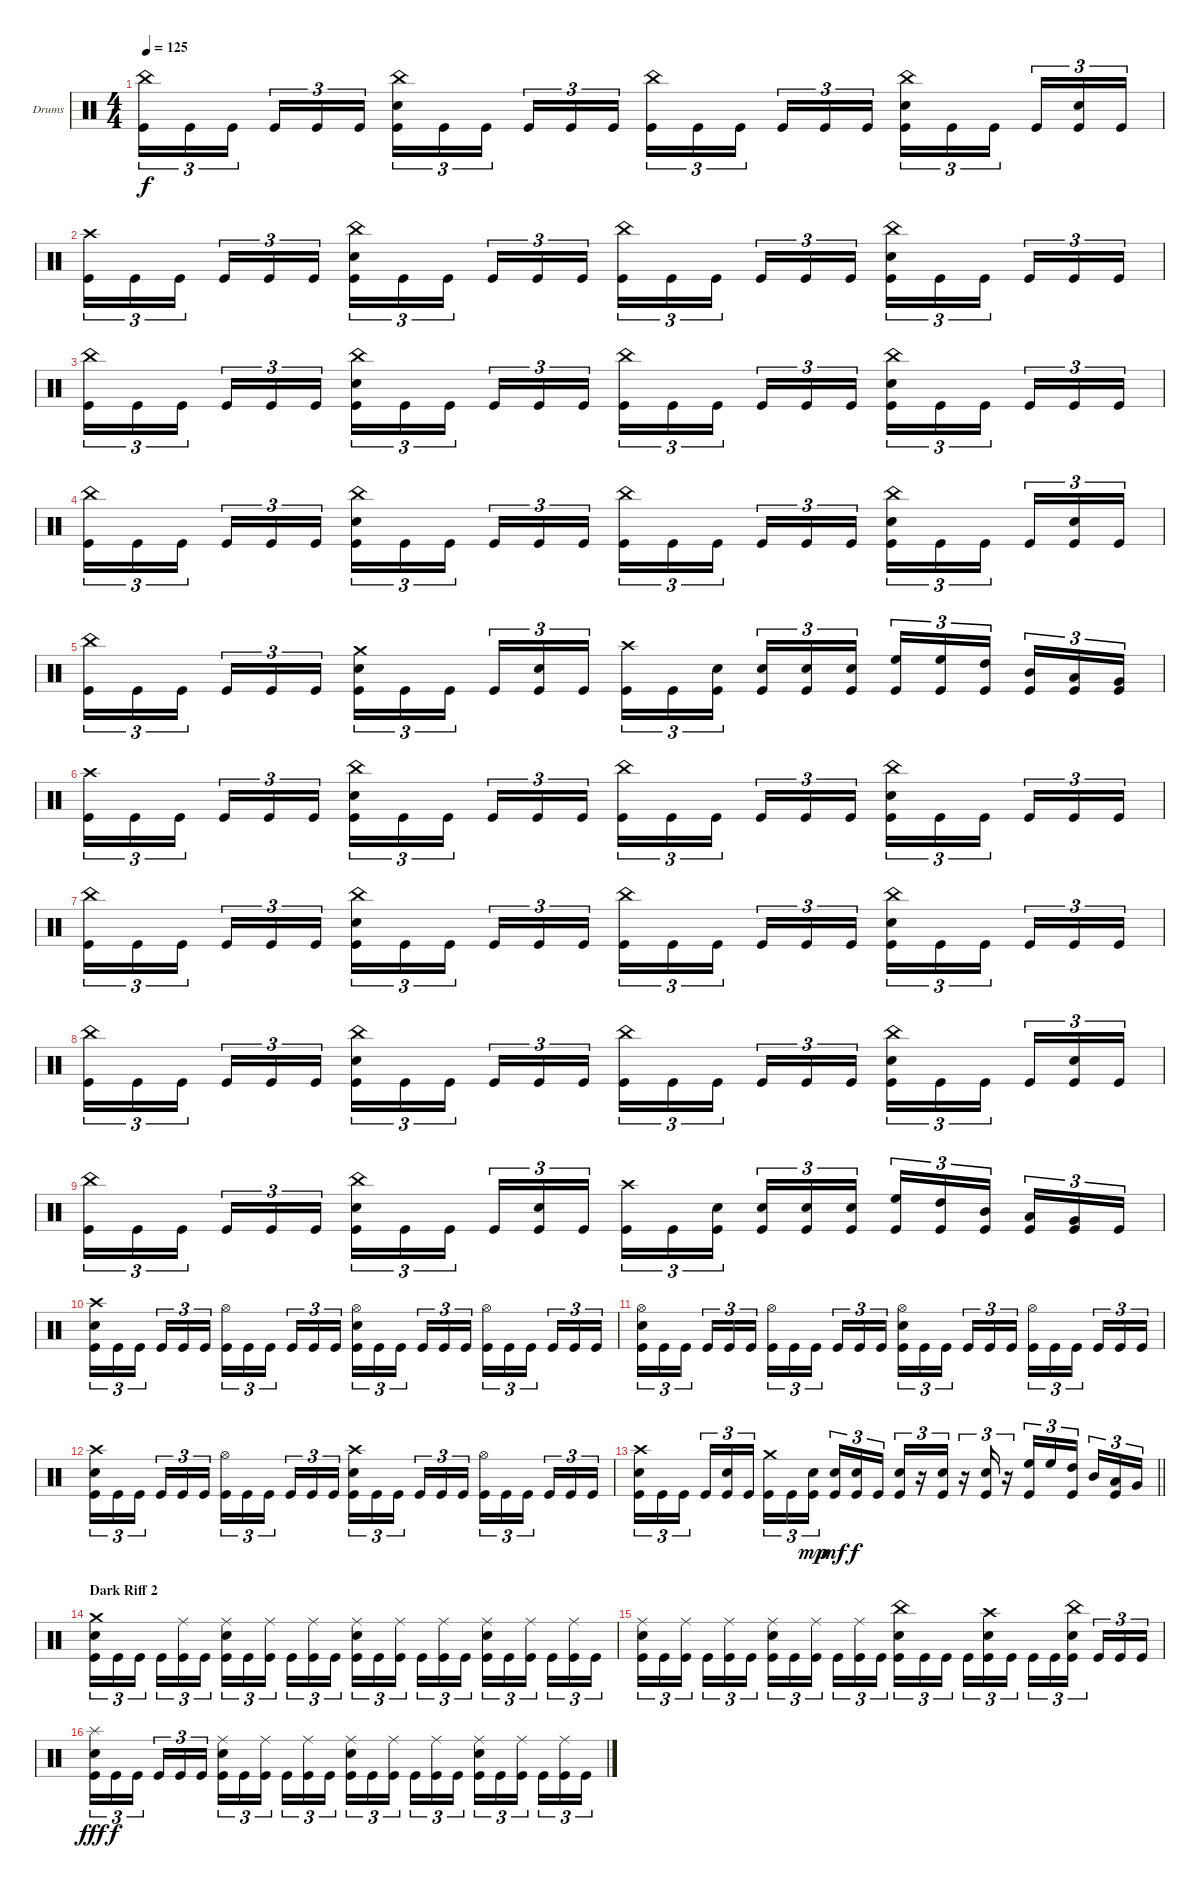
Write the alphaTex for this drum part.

\bracketExtendMode nobrackets
\firstSystemTrackNameOrientation horizontal
\otherSystemsTrackNameOrientation horizontal
\track ("Drumkit" "Drums") {instrument percussion}
\staff {score}
\articulation defaults
\ts (4 4)
\tempo 125
\clef neutral
\ks c
("China (hit)" "Kick (hit)").16{tu (3 2) dy f} "Kick (hit)".16{tu (3 2)} "Kick (hit)".16{tu (3 2)} "Kick (hit)".16{tu (3 2)} "Kick (hit)".16{tu (3 2)} "Kick (hit)".16{tu (3 2)} ("China (hit)" "Snare (hit) 2" "Kick (hit)").16{tu (3 2)} "Kick (hit)".16{tu (3 2)} "Kick (hit)".16{tu (3 2)} "Kick (hit)".16{tu (3 2)} "Kick (hit)".16{tu (3 2)} "Kick (hit)".16{tu (3 2)} ("China (hit)" "Kick (hit)").16{tu (3 2)} "Kick (hit)".16{tu (3 2)} "Kick (hit)".16{tu (3 2)} "Kick (hit)".16{tu (3 2)} "Kick (hit)".16{tu (3 2)} "Kick (hit)".16{tu (3 2)} ("China (hit)" "Snare (hit) 2" "Kick (hit)").16{tu (3 2)} "Kick (hit)".16{tu (3 2)} "Kick (hit)".16{tu (3 2)} "Kick (hit)".16{tu (3 2)} ("Snare (hit) 2" "Kick (hit)").16{tu (3 2)} "Kick (hit)".16{tu (3 2)} |
("Crash high (hit)" "Kick (hit)").16{tu (3 2)} "Kick (hit)".16{tu (3 2)} "Kick (hit)".16{tu (3 2)} "Kick (hit)".16{tu (3 2)} "Kick (hit)".16{tu (3 2)} "Kick (hit)".16{tu (3 2)} ("China (hit)" "Snare (hit) 2" "Kick (hit)").16{tu (3 2)} "Kick (hit)".16{tu (3 2)} "Kick (hit)".16{tu (3 2)} "Kick (hit)".16{tu (3 2)} "Kick (hit)".16{tu (3 2)} "Kick (hit)".16{tu (3 2)} ("China (hit)" "Kick (hit)").16{tu (3 2)} "Kick (hit)".16{tu (3 2)} "Kick (hit)".16{tu (3 2)} "Kick (hit)".16{tu (3 2)} "Kick (hit)".16{tu (3 2)} "Kick (hit)".16{tu (3 2)} ("China (hit)" "Snare (hit) 2" "Kick (hit)").16{tu (3 2)} "Kick (hit)".16{tu (3 2)} "Kick (hit)".16{tu (3 2)} "Kick (hit)".16{tu (3 2)} "Kick (hit)".16{tu (3 2)} "Kick (hit)".16{tu (3 2)} |
("China (hit)" "Kick (hit)").16{tu (3 2)} "Kick (hit)".16{tu (3 2)} "Kick (hit)".16{tu (3 2)} "Kick (hit)".16{tu (3 2)} "Kick (hit)".16{tu (3 2)} "Kick (hit)".16{tu (3 2)} ("China (hit)" "Snare (hit) 2" "Kick (hit)").16{tu (3 2)} "Kick (hit)".16{tu (3 2)} "Kick (hit)".16{tu (3 2)} "Kick (hit)".16{tu (3 2)} "Kick (hit)".16{tu (3 2)} "Kick (hit)".16{tu (3 2)} ("China (hit)" "Kick (hit)").16{tu (3 2)} "Kick (hit)".16{tu (3 2)} "Kick (hit)".16{tu (3 2)} "Kick (hit)".16{tu (3 2)} "Kick (hit)".16{tu (3 2)} "Kick (hit)".16{tu (3 2)} ("China (hit)" "Snare (hit) 2" "Kick (hit)").16{tu (3 2)} "Kick (hit)".16{tu (3 2)} "Kick (hit)".16{tu (3 2)} "Kick (hit)".16{tu (3 2)} "Kick (hit)".16{tu (3 2)} "Kick (hit)".16{tu (3 2)} |
("China (hit)" "Kick (hit)").16{tu (3 2)} "Kick (hit)".16{tu (3 2)} "Kick (hit)".16{tu (3 2)} "Kick (hit)".16{tu (3 2)} "Kick (hit)".16{tu (3 2)} "Kick (hit)".16{tu (3 2)} ("China (hit)" "Snare (hit) 2" "Kick (hit)").16{tu (3 2)} "Kick (hit)".16{tu (3 2)} "Kick (hit)".16{tu (3 2)} "Kick (hit)".16{tu (3 2)} "Kick (hit)".16{tu (3 2)} "Kick (hit)".16{tu (3 2)} ("China (hit)" "Kick (hit)").16{tu (3 2)} "Kick (hit)".16{tu (3 2)} "Kick (hit)".16{tu (3 2)} "Kick (hit)".16{tu (3 2)} "Kick (hit)".16{tu (3 2)} "Kick (hit)".16{tu (3 2)} ("China (hit)" "Snare (hit) 2" "Kick (hit)").16{tu (3 2)} "Kick (hit)".16{tu (3 2)} "Kick (hit)".16{tu (3 2)} "Kick (hit)".16{tu (3 2)} ("Snare (hit) 2" "Kick (hit)").16{tu (3 2)} "Kick (hit)".16{tu (3 2)} |
("China (hit)" "Kick (hit)").16{tu (3 2)} "Kick (hit)".16{tu (3 2)} "Kick (hit)".16{tu (3 2)} "Kick (hit)".16{tu (3 2)} "Kick (hit)".16{tu (3 2)} "Kick (hit)".16{tu (3 2)} ("Crash medium (hit)" "Snare (hit) 2" "Kick (hit)").16{tu (3 2)} "Kick (hit)".16{tu (3 2)} "Kick (hit)".16{tu (3 2)} "Kick (hit)".16{tu (3 2)} ("Snare (hit) 2" "Kick (hit)").16{tu (3 2)} "Kick (hit)".16{tu (3 2)} ("Crash high (hit)" "Kick (hit)").16{tu (3 2)} "Kick (hit)".16{tu (3 2)} ("Snare (hit) 2" "Kick (hit)").16{tu (3 2)} ("Snare (hit) 2" "Kick (hit)").16{tu (3 2)} ("Snare (hit) 2" "Kick (hit)").16{tu (3 2)} ("Snare (hit) 2" "Kick (hit)").16{tu (3 2)} ("High Floor Tom (hit)" "Kick (hit)").16{tu (3 2)} ("High Floor Tom (hit)" "Kick (hit)").16{tu (3 2)} ("High Tom (hit)" "Kick (hit)").16{tu (3 2)} ("Mid Tom (hit)" "Kick (hit)").16{tu (3 2)} ("Low Tom (hit)" "Kick (hit)").16{tu (3 2)} ("Very Low Tom (hit)" "Kick (hit)").16{tu (3 2)} |
("Crash high (hit)" "Kick (hit)").16{tu (3 2)} "Kick (hit)".16{tu (3 2)} "Kick (hit)".16{tu (3 2)} "Kick (hit)".16{tu (3 2)} "Kick (hit)".16{tu (3 2)} "Kick (hit)".16{tu (3 2)} ("China (hit)" "Snare (hit) 2" "Kick (hit)").16{tu (3 2)} "Kick (hit)".16{tu (3 2)} "Kick (hit)".16{tu (3 2)} "Kick (hit)".16{tu (3 2)} "Kick (hit)".16{tu (3 2)} "Kick (hit)".16{tu (3 2)} ("China (hit)" "Kick (hit)").16{tu (3 2)} "Kick (hit)".16{tu (3 2)} "Kick (hit)".16{tu (3 2)} "Kick (hit)".16{tu (3 2)} "Kick (hit)".16{tu (3 2)} "Kick (hit)".16{tu (3 2)} ("China (hit)" "Snare (hit) 2" "Kick (hit)").16{tu (3 2)} "Kick (hit)".16{tu (3 2)} "Kick (hit)".16{tu (3 2)} "Kick (hit)".16{tu (3 2)} "Kick (hit)".16{tu (3 2)} "Kick (hit)".16{tu (3 2)} |
("China (hit)" "Kick (hit)").16{tu (3 2)} "Kick (hit)".16{tu (3 2)} "Kick (hit)".16{tu (3 2)} "Kick (hit)".16{tu (3 2)} "Kick (hit)".16{tu (3 2)} "Kick (hit)".16{tu (3 2)} ("China (hit)" "Snare (hit) 2" "Kick (hit)").16{tu (3 2)} "Kick (hit)".16{tu (3 2)} "Kick (hit)".16{tu (3 2)} "Kick (hit)".16{tu (3 2)} "Kick (hit)".16{tu (3 2)} "Kick (hit)".16{tu (3 2)} ("China (hit)" "Kick (hit)").16{tu (3 2)} "Kick (hit)".16{tu (3 2)} "Kick (hit)".16{tu (3 2)} "Kick (hit)".16{tu (3 2)} "Kick (hit)".16{tu (3 2)} "Kick (hit)".16{tu (3 2)} ("China (hit)" "Snare (hit) 2" "Kick (hit)").16{tu (3 2)} "Kick (hit)".16{tu (3 2)} "Kick (hit)".16{tu (3 2)} "Kick (hit)".16{tu (3 2)} "Kick (hit)".16{tu (3 2)} "Kick (hit)".16{tu (3 2)} |
("China (hit)" "Kick (hit)").16{tu (3 2)} "Kick (hit)".16{tu (3 2)} "Kick (hit)".16{tu (3 2)} "Kick (hit)".16{tu (3 2)} "Kick (hit)".16{tu (3 2)} "Kick (hit)".16{tu (3 2)} ("China (hit)" "Snare (hit) 2" "Kick (hit)").16{tu (3 2)} "Kick (hit)".16{tu (3 2)} "Kick (hit)".16{tu (3 2)} "Kick (hit)".16{tu (3 2)} "Kick (hit)".16{tu (3 2)} "Kick (hit)".16{tu (3 2)} ("China (hit)" "Kick (hit)").16{tu (3 2)} "Kick (hit)".16{tu (3 2)} "Kick (hit)".16{tu (3 2)} "Kick (hit)".16{tu (3 2)} "Kick (hit)".16{tu (3 2)} "Kick (hit)".16{tu (3 2)} ("China (hit)" "Snare (hit) 2" "Kick (hit)").16{tu (3 2)} "Kick (hit)".16{tu (3 2)} "Kick (hit)".16{tu (3 2)} "Kick (hit)".16{tu (3 2)} ("Snare (hit) 2" "Kick (hit)").16{tu (3 2)} "Kick (hit)".16{tu (3 2)} |
("China (hit)" "Kick (hit)").16{tu (3 2)} "Kick (hit)".16{tu (3 2)} "Kick (hit)".16{tu (3 2)} "Kick (hit)".16{tu (3 2)} "Kick (hit)".16{tu (3 2)} "Kick (hit)".16{tu (3 2)} ("China (hit)" "Snare (hit) 2" "Kick (hit)").16{tu (3 2)} "Kick (hit)".16{tu (3 2)} "Kick (hit)".16{tu (3 2)} "Kick (hit)".16{tu (3 2)} ("Snare (hit) 2" "Kick (hit)").16{tu (3 2)} "Kick (hit)".16{tu (3 2)} ("Crash high (hit)" "Kick (hit)").16{tu (3 2)} "Kick (hit)".16{tu (3 2)} ("Snare (hit) 2" "Kick (hit)").16{tu (3 2)} ("Snare (hit) 2" "Kick (hit)").16{tu (3 2)} ("Snare (hit) 2" "Kick (hit)").16{tu (3 2)} ("Snare (hit) 2" "Kick (hit)").16{tu (3 2)} ("High Floor Tom (hit)" "Kick (hit)").16{tu (3 2)} ("High Tom (hit)" "Kick (hit)").16{tu (3 2)} ("Mid Tom (hit)" "Kick (hit)").16{tu (3 2)} ("Low Tom (hit)" "Kick (hit)").16{tu (3 2)} ("Very Low Tom (hit)" "Kick (hit)").16{tu (3 2)} "Kick (hit)".16{tu (3 2)} |
("Crash high (hit)" "Snare (hit) 2" "Kick (hit)").16{tu (3 2)} "Kick (hit)".16{tu (3 2)} "Kick (hit)".16{tu (3 2)} "Kick (hit)".16{tu (3 2)} "Kick (hit)".16{tu (3 2)} "Kick (hit)".16{tu (3 2)} ("Hi-Hat (open)" "Kick (hit)").16{tu (3 2)} "Kick (hit)".16{tu (3 2)} "Kick (hit)".16{tu (3 2)} "Kick (hit)".16{tu (3 2)} "Kick (hit)".16{tu (3 2)} "Kick (hit)".16{tu (3 2)} ("Hi-Hat (open)" "Snare (hit) 2" "Kick (hit)").16{tu (3 2)} "Kick (hit)".16{tu (3 2)} "Kick (hit)".16{tu (3 2)} "Kick (hit)".16{tu (3 2)} "Kick (hit)".16{tu (3 2)} "Kick (hit)".16{tu (3 2)} ("Hi-Hat (open)" "Kick (hit)").16{tu (3 2)} "Kick (hit)".16{tu (3 2)} "Kick (hit)".16{tu (3 2)} "Kick (hit)".16{tu (3 2)} "Kick (hit)".16{tu (3 2)} "Kick (hit)".16{tu (3 2)} |
("Hi-Hat (open)" "Snare (hit) 2" "Kick (hit)").16{tu (3 2)} "Kick (hit)".16{tu (3 2)} "Kick (hit)".16{tu (3 2)} "Kick (hit)".16{tu (3 2)} "Kick (hit)".16{tu (3 2)} "Kick (hit)".16{tu (3 2)} ("Hi-Hat (open)" "Kick (hit)").16{tu (3 2)} "Kick (hit)".16{tu (3 2)} "Kick (hit)".16{tu (3 2)} "Kick (hit)".16{tu (3 2)} "Kick (hit)".16{tu (3 2)} "Kick (hit)".16{tu (3 2)} ("Hi-Hat (open)" "Snare (hit) 2" "Kick (hit)").16{tu (3 2)} "Kick (hit)".16{tu (3 2)} "Kick (hit)".16{tu (3 2)} "Kick (hit)".16{tu (3 2)} "Kick (hit)".16{tu (3 2)} "Kick (hit)".16{tu (3 2)} ("Hi-Hat (open)" "Kick (hit)").16{tu (3 2)} "Kick (hit)".16{tu (3 2)} "Kick (hit)".16{tu (3 2)} "Kick (hit)".16{tu (3 2)} "Kick (hit)".16{tu (3 2)} "Kick (hit)".16{tu (3 2)} |
("Crash high (hit)" "Snare (hit) 2" "Kick (hit)").16{tu (3 2)} "Kick (hit)".16{tu (3 2)} "Kick (hit)".16{tu (3 2)} "Kick (hit)".16{tu (3 2)} "Kick (hit)".16{tu (3 2)} "Kick (hit)".16{tu (3 2)} ("Hi-Hat (open)" "Kick (hit)").16{tu (3 2)} "Kick (hit)".16{tu (3 2)} "Kick (hit)".16{tu (3 2)} "Kick (hit)".16{tu (3 2)} "Kick (hit)".16{tu (3 2)} "Kick (hit)".16{tu (3 2)} ("Crash high (hit)" "Snare (hit) 2" "Kick (hit)").16{tu (3 2)} "Kick (hit)".16{tu (3 2)} "Kick (hit)".16{tu (3 2)} "Kick (hit)".16{tu (3 2)} "Kick (hit)".16{tu (3 2)} "Kick (hit)".16{tu (3 2)} ("Hi-Hat (open)" "Kick (hit)").16{tu (3 2)} "Kick (hit)".16{tu (3 2)} "Kick (hit)".16{tu (3 2)} "Kick (hit)".16{tu (3 2)} "Kick (hit)".16{tu (3 2)} "Kick (hit)".16{tu (3 2)} |
\barLineRight lightlight
("Crash high (hit)" "Snare (hit) 2" "Kick (hit)").16{tu (3 2)} "Kick (hit)".16{tu (3 2)} "Kick (hit)".16{tu (3 2)} "Kick (hit)".16{tu (3 2)} ("Snare (hit) 2" "Kick (hit)").16{tu (3 2)} "Kick (hit)".16{tu (3 2)} ("Crash medium (hit)" "Kick (hit)").16{tu (3 2)} "Kick (hit)".16{tu (3 2)} ("Snare (hit) 2" "Kick (hit)").16{tu (3 2) dy mp} ("Snare (hit) 2" "Kick (hit)").16{tu (3 2) dy mf} ("Snare (hit) 2" "Kick (hit)").16{tu (3 2) dy f} "Kick (hit)".16{tu (3 2)} ("Snare (hit) 2" "Kick (hit)").16{tu (3 2)} r.16{tu (3 2)} ("Snare (hit) 2" "Kick (hit)").16{tu (3 2)} r.16{tu (3 2)} ("Snare (hit) 2" "Kick (hit)").16{tu (3 2)} r.16{tu (3 2)} ("High Floor Tom (hit)" "Kick (hit)").16{tu (3 2)} "High Floor Tom (hit)".16{tu (3 2)} ("High Tom (hit)" "Kick (hit)").16{tu (3 2)} "Mid Tom (hit)".16{tu (3 2)} ("Low Tom (hit)" "Kick (hit)").16{tu (3 2)} "Very Low Tom (hit)".16{tu (3 2)} |
\section ("" "Dark Riff 2")
("Crash medium (hit)" "Snare (hit) 2" "Kick (hit)").16{tu (3 2)} "Kick (hit)".16{tu (3 2)} "Kick (hit)".16{tu (3 2)} "Kick (hit)".16{tu (3 2)} ("Ride (middle)" "Kick (hit)").16{tu (3 2)} "Kick (hit)".16{tu (3 2)} ("Ride (middle)" "Snare (hit) 2" "Kick (hit)").16{tu (3 2)} "Kick (hit)".16{tu (3 2)} ("Ride (middle)" "Kick (hit)").16{tu (3 2)} "Kick (hit)".16{tu (3 2)} ("Ride (middle)" "Kick (hit)").16{tu (3 2)} "Kick (hit)".16{tu (3 2)} ("Ride (middle)" "Snare (hit) 2" "Kick (hit)").16{tu (3 2)} "Kick (hit)".16{tu (3 2)} ("Ride (middle)" "Kick (hit)").16{tu (3 2)} "Kick (hit)".16{tu (3 2)} ("Ride (middle)" "Kick (hit)").16{tu (3 2)} "Kick (hit)".16{tu (3 2)} ("Ride (middle)" "Snare (hit) 2" "Kick (hit)").16{tu (3 2)} "Kick (hit)".16{tu (3 2)} ("Ride (middle)" "Kick (hit)").16{tu (3 2)} "Kick (hit)".16{tu (3 2)} ("Ride (middle)" "Kick (hit)").16{tu (3 2)} "Kick (hit)".16{tu (3 2)} |
("Ride (middle)" "Snare (hit) 2" "Kick (hit)").16{tu (3 2)} "Kick (hit)".16{tu (3 2)} ("Ride (middle)" "Kick (hit)").16{tu (3 2)} "Kick (hit)".16{tu (3 2)} ("Ride (middle)" "Kick (hit)").16{tu (3 2)} "Kick (hit)".16{tu (3 2)} ("Ride (middle)" "Snare (hit) 2" "Kick (hit)").16{tu (3 2)} "Kick (hit)".16{tu (3 2)} ("Ride (middle)" "Kick (hit)").16{tu (3 2)} "Kick (hit)".16{tu (3 2)} ("Ride (middle)" "Kick (hit)").16{tu (3 2)} "Kick (hit)".16{tu (3 2)} ("China (hit)" "Snare (hit) 2" "Kick (hit)").16{tu (3 2)} "Kick (hit)".16{tu (3 2)} "Kick (hit)".16{tu (3 2)} "Kick (hit)".16{tu (3 2)} ("Crash high (hit)" "Snare (hit) 2" "Kick (hit)").16{tu (3 2)} "Kick (hit)".16{tu (3 2)} "Kick (hit)".16{tu (3 2)} "Kick (hit)".16{tu (3 2)} ("China (hit)" "Snare (hit) 2" "Kick (hit)").16{tu (3 2)} "Kick (hit)".16{tu (3 2)} "Kick (hit)".16{tu (3 2)} "Kick (hit)".16{tu (3 2)} |
("Splash (hit)" "Snare (hit) 2" "Kick (hit)").16{tu (3 2) dy fff} "Kick (hit)".16{tu (3 2) dy f} "Kick (hit)".16{tu (3 2)} "Kick (hit)".16{tu (3 2)} "Kick (hit)".16{tu (3 2)} "Kick (hit)".16{tu (3 2)} ("Ride (middle)" "Snare (hit) 2" "Kick (hit)").16{tu (3 2)} "Kick (hit)".16{tu (3 2)} ("Ride (middle)" "Kick (hit)").16{tu (3 2)} "Kick (hit)".16{tu (3 2)} ("Ride (middle)" "Kick (hit)").16{tu (3 2)} "Kick (hit)".16{tu (3 2)} ("Ride (middle)" "Snare (hit) 2" "Kick (hit)").16{tu (3 2)} "Kick (hit)".16{tu (3 2)} ("Ride (middle)" "Kick (hit)").16{tu (3 2)} "Kick (hit)".16{tu (3 2)} ("Ride (middle)" "Kick (hit)").16{tu (3 2)} "Kick (hit)".16{tu (3 2)} ("Ride (middle)" "Snare (hit) 2" "Kick (hit)").16{tu (3 2)} "Kick (hit)".16{tu (3 2)} ("Ride (middle)" "Kick (hit)").16{tu (3 2)} "Kick (hit)".16{tu (3 2)} ("Ride (middle)" "Kick (hit)").16{tu (3 2)} "Kick (hit)".16{tu (3 2)}
